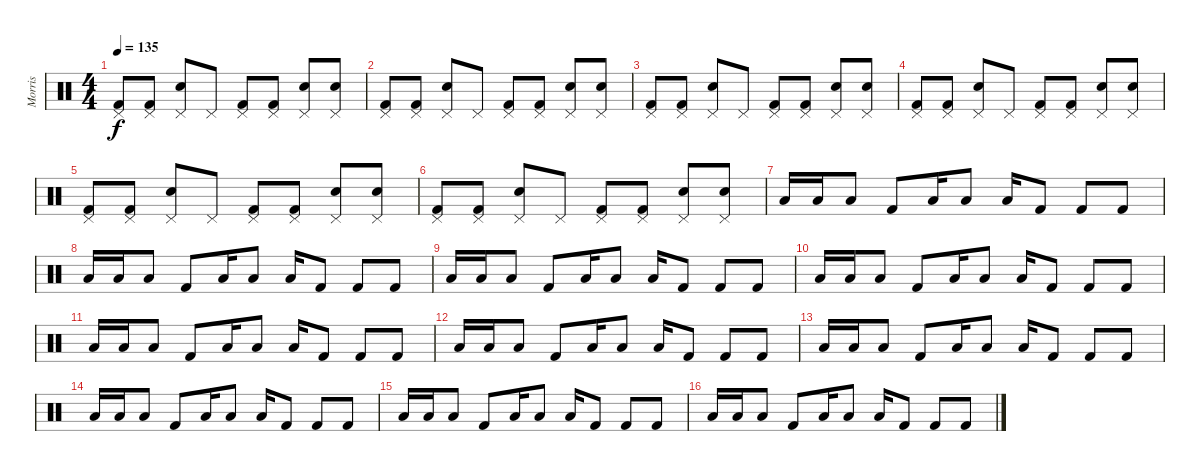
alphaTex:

\track ("Morris" "Morris") {instrument percussion}
\staff {score}
\articulation defaults
\ts (4 4)
\tempo 135
\clef neutral
\ks c
("Pedal Hi-Hat (hit)" "Kick (hit) 2").8{dy f} ("Pedal Hi-Hat (hit)" "Kick (hit) 2").8 ("Pedal Hi-Hat (hit)" "Electric Snare (hit)").8 "Pedal Hi-Hat (hit)".8 ("Pedal Hi-Hat (hit)" "Kick (hit) 2").8 ("Pedal Hi-Hat (hit)" "Kick (hit) 2").8 ("Pedal Hi-Hat (hit)" "Electric Snare (hit)").8 ("Pedal Hi-Hat (hit)" "Electric Snare (hit)").8 |
("Pedal Hi-Hat (hit)" "Kick (hit) 2").8 ("Pedal Hi-Hat (hit)" "Kick (hit) 2").8 ("Pedal Hi-Hat (hit)" "Electric Snare (hit)").8 "Pedal Hi-Hat (hit)".8 ("Pedal Hi-Hat (hit)" "Kick (hit) 2").8 ("Pedal Hi-Hat (hit)" "Kick (hit) 2").8 ("Pedal Hi-Hat (hit)" "Electric Snare (hit)").8 ("Pedal Hi-Hat (hit)" "Electric Snare (hit)").8 |
("Pedal Hi-Hat (hit)" "Kick (hit) 2").8 ("Pedal Hi-Hat (hit)" "Kick (hit) 2").8 ("Pedal Hi-Hat (hit)" "Electric Snare (hit)").8 "Pedal Hi-Hat (hit)".8 ("Pedal Hi-Hat (hit)" "Kick (hit) 2").8 ("Pedal Hi-Hat (hit)" "Kick (hit) 2").8 ("Pedal Hi-Hat (hit)" "Electric Snare (hit)").8 ("Pedal Hi-Hat (hit)" "Electric Snare (hit)").8 |
("Pedal Hi-Hat (hit)" "Kick (hit) 2").8 ("Pedal Hi-Hat (hit)" "Kick (hit) 2").8 ("Pedal Hi-Hat (hit)" "Electric Snare (hit)").8 "Pedal Hi-Hat (hit)".8 ("Pedal Hi-Hat (hit)" "Kick (hit) 2").8 ("Pedal Hi-Hat (hit)" "Kick (hit) 2").8 ("Pedal Hi-Hat (hit)" "Electric Snare (hit)").8 ("Pedal Hi-Hat (hit)" "Electric Snare (hit)").8 |
("Pedal Hi-Hat (hit)" "Kick (hit) 2").8 ("Pedal Hi-Hat (hit)" "Kick (hit) 2").8 ("Pedal Hi-Hat (hit)" "Electric Snare (hit)").8 "Pedal Hi-Hat (hit)".8 ("Pedal Hi-Hat (hit)" "Kick (hit) 2").8 ("Pedal Hi-Hat (hit)" "Kick (hit) 2").8 ("Pedal Hi-Hat (hit)" "Electric Snare (hit)").8 ("Pedal Hi-Hat (hit)" "Electric Snare (hit)").8 |
("Pedal Hi-Hat (hit)" "Kick (hit) 2").8 ("Pedal Hi-Hat (hit)" "Kick (hit) 2").8 ("Pedal Hi-Hat (hit)" "Electric Snare (hit)").8 "Pedal Hi-Hat (hit)".8 ("Pedal Hi-Hat (hit)" "Kick (hit) 2").8 ("Pedal Hi-Hat (hit)" "Kick (hit) 2").8 ("Pedal Hi-Hat (hit)" "Electric Snare (hit)").8 ("Pedal Hi-Hat (hit)" "Electric Snare (hit)").8 |
"Low Tom (hit)".16 "Low Tom (hit)".16 "Low Tom (hit)".8 "Kick (hit) 2".8 "Low Tom (hit)".16 "Low Tom (hit)".8 "Low Tom (hit)".16 "Kick (hit) 2".8 "Kick (hit) 2".8 "Kick (hit) 2".8 |
"Low Tom (hit)".16 "Low Tom (hit)".16 "Low Tom (hit)".8 "Kick (hit) 2".8 "Low Tom (hit)".16 "Low Tom (hit)".8 "Low Tom (hit)".16 "Kick (hit) 2".8 "Kick (hit) 2".8 "Kick (hit) 2".8 |
"Low Tom (hit)".16 "Low Tom (hit)".16 "Low Tom (hit)".8 "Kick (hit) 2".8 "Low Tom (hit)".16 "Low Tom (hit)".8 "Low Tom (hit)".16 "Kick (hit) 2".8 "Kick (hit) 2".8 "Kick (hit) 2".8 |
"Low Tom (hit)".16 "Low Tom (hit)".16 "Low Tom (hit)".8 "Kick (hit) 2".8 "Low Tom (hit)".16 "Low Tom (hit)".8 "Low Tom (hit)".16 "Kick (hit) 2".8 "Kick (hit) 2".8 "Kick (hit) 2".8 |
"Low Tom (hit)".16 "Low Tom (hit)".16 "Low Tom (hit)".8 "Kick (hit) 2".8 "Low Tom (hit)".16 "Low Tom (hit)".8 "Low Tom (hit)".16 "Kick (hit) 2".8 "Kick (hit) 2".8 "Kick (hit) 2".8 |
"Low Tom (hit)".16 "Low Tom (hit)".16 "Low Tom (hit)".8 "Kick (hit) 2".8 "Low Tom (hit)".16 "Low Tom (hit)".8 "Low Tom (hit)".16 "Kick (hit) 2".8 "Kick (hit) 2".8 "Kick (hit) 2".8 |
"Low Tom (hit)".16 "Low Tom (hit)".16 "Low Tom (hit)".8 "Kick (hit) 2".8 "Low Tom (hit)".16 "Low Tom (hit)".8 "Low Tom (hit)".16 "Kick (hit) 2".8 "Kick (hit) 2".8 "Kick (hit) 2".8 |
"Low Tom (hit)".16 "Low Tom (hit)".16 "Low Tom (hit)".8 "Kick (hit) 2".8 "Low Tom (hit)".16 "Low Tom (hit)".8 "Low Tom (hit)".16 "Kick (hit) 2".8 "Kick (hit) 2".8 "Kick (hit) 2".8 |
"Low Tom (hit)".16 "Low Tom (hit)".16 "Low Tom (hit)".8 "Kick (hit) 2".8 "Low Tom (hit)".16 "Low Tom (hit)".8 "Low Tom (hit)".16 "Kick (hit) 2".8 "Kick (hit) 2".8 "Kick (hit) 2".8 |
"Low Tom (hit)".16 "Low Tom (hit)".16 "Low Tom (hit)".8 "Kick (hit) 2".8 "Low Tom (hit)".16 "Low Tom (hit)".8 "Low Tom (hit)".16 "Kick (hit) 2".8 "Kick (hit) 2".8 "Kick (hit) 2".8
